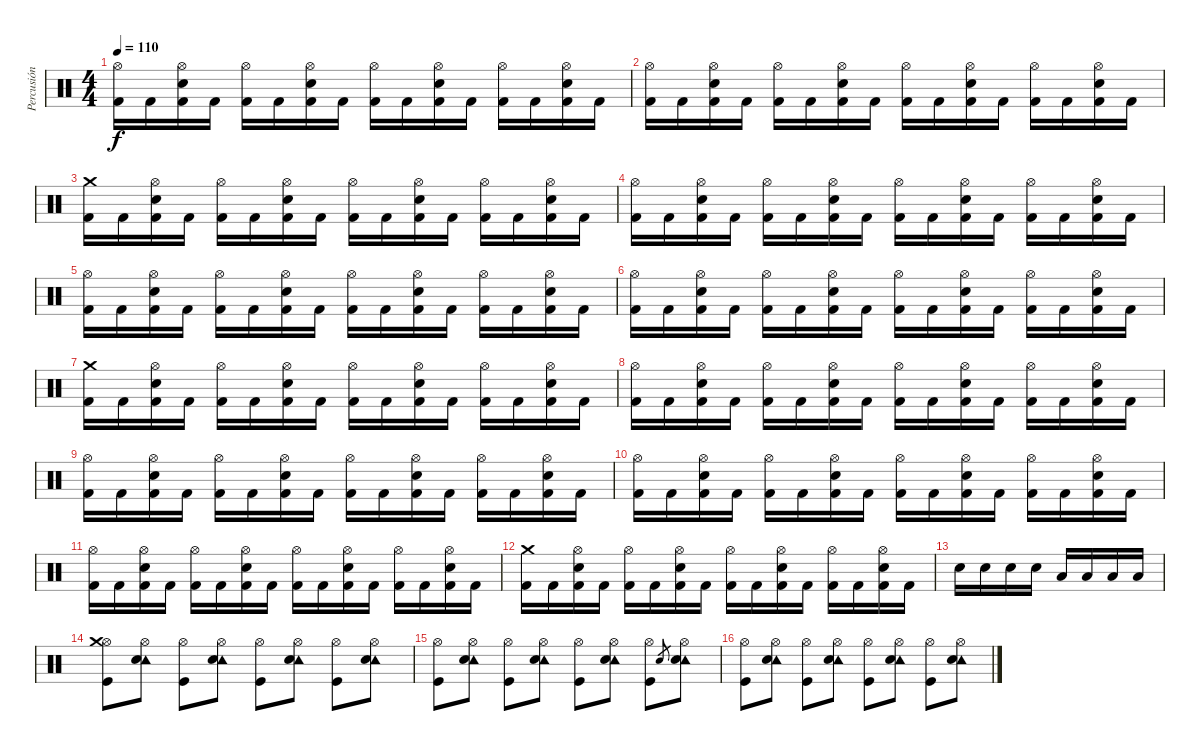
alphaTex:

\track ("Percusión" "Percusión") {instrument percussion}
\staff {score}
\articulation defaults
\ts (4 4)
\tempo 110
\clef neutral
\ks c
("Hi-Hat (open)" "Kick (hit) 2").16{dy f} "Kick (hit) 2".16 ("Hi-Hat (open)" "Electric Snare (hit)" "Kick (hit) 2").16 "Kick (hit) 2".16 ("Hi-Hat (open)" "Kick (hit) 2").16 "Kick (hit) 2".16 ("Hi-Hat (open)" "Electric Snare (hit)" "Kick (hit) 2").16 "Kick (hit) 2".16 ("Hi-Hat (open)" "Kick (hit) 2").16 "Kick (hit) 2".16 ("Hi-Hat (open)" "Electric Snare (hit)" "Kick (hit) 2").16 "Kick (hit) 2".16 ("Hi-Hat (open)" "Kick (hit) 2").16 "Kick (hit) 2".16 ("Hi-Hat (open)" "Electric Snare (hit)" "Kick (hit) 2").16 "Kick (hit) 2".16 |
("Hi-Hat (open)" "Kick (hit) 2").16 "Kick (hit) 2".16 ("Hi-Hat (open)" "Electric Snare (hit)" "Kick (hit) 2").16 "Kick (hit) 2".16 ("Hi-Hat (open)" "Kick (hit) 2").16 "Kick (hit) 2".16 ("Hi-Hat (open)" "Electric Snare (hit)" "Kick (hit) 2").16 "Kick (hit) 2".16 ("Hi-Hat (open)" "Kick (hit) 2").16 "Kick (hit) 2".16 ("Hi-Hat (open)" "Electric Snare (hit)" "Kick (hit) 2").16 "Kick (hit) 2".16 ("Hi-Hat (open)" "Kick (hit) 2").16 "Kick (hit) 2".16 ("Hi-Hat (open)" "Electric Snare (hit)" "Kick (hit) 2").16 "Kick (hit) 2".16 |
("Crash medium (hit)" "Kick (hit) 2").16 "Kick (hit) 2".16 ("Hi-Hat (open)" "Electric Snare (hit)" "Kick (hit) 2").16 "Kick (hit) 2".16 ("Hi-Hat (open)" "Kick (hit) 2").16 "Kick (hit) 2".16 ("Hi-Hat (open)" "Electric Snare (hit)" "Kick (hit) 2").16 "Kick (hit) 2".16 ("Hi-Hat (open)" "Kick (hit) 2").16 "Kick (hit) 2".16 ("Hi-Hat (open)" "Electric Snare (hit)" "Kick (hit) 2").16 "Kick (hit) 2".16 ("Hi-Hat (open)" "Kick (hit) 2").16 "Kick (hit) 2".16 ("Hi-Hat (open)" "Electric Snare (hit)" "Kick (hit) 2").16 "Kick (hit) 2".16 |
("Hi-Hat (open)" "Kick (hit) 2").16 "Kick (hit) 2".16 ("Hi-Hat (open)" "Electric Snare (hit)" "Kick (hit) 2").16 "Kick (hit) 2".16 ("Hi-Hat (open)" "Kick (hit) 2").16 "Kick (hit) 2".16 ("Hi-Hat (open)" "Electric Snare (hit)" "Kick (hit) 2").16 "Kick (hit) 2".16 ("Hi-Hat (open)" "Kick (hit) 2").16 "Kick (hit) 2".16 ("Hi-Hat (open)" "Electric Snare (hit)" "Kick (hit) 2").16 "Kick (hit) 2".16 ("Hi-Hat (open)" "Kick (hit) 2").16 "Kick (hit) 2".16 ("Hi-Hat (open)" "Electric Snare (hit)" "Kick (hit) 2").16 "Kick (hit) 2".16 |
("Hi-Hat (open)" "Kick (hit) 2").16 "Kick (hit) 2".16 ("Hi-Hat (open)" "Electric Snare (hit)" "Kick (hit) 2").16 "Kick (hit) 2".16 ("Hi-Hat (open)" "Kick (hit) 2").16 "Kick (hit) 2".16 ("Hi-Hat (open)" "Electric Snare (hit)" "Kick (hit) 2").16 "Kick (hit) 2".16 ("Hi-Hat (open)" "Kick (hit) 2").16 "Kick (hit) 2".16 ("Hi-Hat (open)" "Electric Snare (hit)" "Kick (hit) 2").16 "Kick (hit) 2".16 ("Hi-Hat (open)" "Kick (hit) 2").16 "Kick (hit) 2".16 ("Hi-Hat (open)" "Electric Snare (hit)" "Kick (hit) 2").16 "Kick (hit) 2".16 |
("Hi-Hat (open)" "Kick (hit) 2").16 "Kick (hit) 2".16 ("Hi-Hat (open)" "Electric Snare (hit)" "Kick (hit) 2").16 "Kick (hit) 2".16 ("Hi-Hat (open)" "Kick (hit) 2").16 "Kick (hit) 2".16 ("Hi-Hat (open)" "Electric Snare (hit)" "Kick (hit) 2").16 "Kick (hit) 2".16 ("Hi-Hat (open)" "Kick (hit) 2").16 "Kick (hit) 2".16 ("Hi-Hat (open)" "Electric Snare (hit)" "Kick (hit) 2").16 "Kick (hit) 2".16 ("Hi-Hat (open)" "Kick (hit) 2").16 "Kick (hit) 2".16 ("Hi-Hat (open)" "Electric Snare (hit)" "Kick (hit) 2").16 "Kick (hit) 2".16 |
("Crash medium (hit)" "Kick (hit) 2").16 "Kick (hit) 2".16 ("Hi-Hat (open)" "Electric Snare (hit)" "Kick (hit) 2").16 "Kick (hit) 2".16 ("Hi-Hat (open)" "Kick (hit) 2").16 "Kick (hit) 2".16 ("Hi-Hat (open)" "Electric Snare (hit)" "Kick (hit) 2").16 "Kick (hit) 2".16 ("Hi-Hat (open)" "Kick (hit) 2").16 "Kick (hit) 2".16 ("Hi-Hat (open)" "Electric Snare (hit)" "Kick (hit) 2").16 "Kick (hit) 2".16 ("Hi-Hat (open)" "Kick (hit) 2").16 "Kick (hit) 2".16 ("Hi-Hat (open)" "Electric Snare (hit)" "Kick (hit) 2").16 "Kick (hit) 2".16 |
("Hi-Hat (open)" "Kick (hit) 2").16 "Kick (hit) 2".16 ("Hi-Hat (open)" "Electric Snare (hit)" "Kick (hit) 2").16 "Kick (hit) 2".16 ("Hi-Hat (open)" "Kick (hit) 2").16 "Kick (hit) 2".16 ("Hi-Hat (open)" "Electric Snare (hit)" "Kick (hit) 2").16 "Kick (hit) 2".16 ("Hi-Hat (open)" "Kick (hit) 2").16 "Kick (hit) 2".16 ("Hi-Hat (open)" "Electric Snare (hit)" "Kick (hit) 2").16 "Kick (hit) 2".16 ("Hi-Hat (open)" "Kick (hit) 2").16 "Kick (hit) 2".16 ("Hi-Hat (open)" "Electric Snare (hit)" "Kick (hit) 2").16 "Kick (hit) 2".16 |
("Hi-Hat (open)" "Kick (hit) 2").16 "Kick (hit) 2".16 ("Hi-Hat (open)" "Electric Snare (hit)" "Kick (hit) 2").16 "Kick (hit) 2".16 ("Hi-Hat (open)" "Kick (hit) 2").16 "Kick (hit) 2".16 ("Hi-Hat (open)" "Electric Snare (hit)" "Kick (hit) 2").16 "Kick (hit) 2".16 ("Hi-Hat (open)" "Kick (hit) 2").16 "Kick (hit) 2".16 ("Hi-Hat (open)" "Electric Snare (hit)" "Kick (hit) 2").16 "Kick (hit) 2".16 ("Hi-Hat (open)" "Kick (hit) 2").16 "Kick (hit) 2".16 ("Hi-Hat (open)" "Electric Snare (hit)" "Kick (hit) 2").16 "Kick (hit) 2".16 |
("Hi-Hat (open)" "Kick (hit) 2").16 "Kick (hit) 2".16 ("Hi-Hat (open)" "Electric Snare (hit)" "Kick (hit) 2").16 "Kick (hit) 2".16 ("Hi-Hat (open)" "Kick (hit) 2").16 "Kick (hit) 2".16 ("Hi-Hat (open)" "Electric Snare (hit)" "Kick (hit) 2").16 "Kick (hit) 2".16 ("Hi-Hat (open)" "Kick (hit) 2").16 "Kick (hit) 2".16 ("Hi-Hat (open)" "Electric Snare (hit)" "Kick (hit) 2").16 "Kick (hit) 2".16 ("Hi-Hat (open)" "Kick (hit) 2").16 "Kick (hit) 2".16 ("Hi-Hat (open)" "Electric Snare (hit)" "Kick (hit) 2").16 "Kick (hit) 2".16 |
("Hi-Hat (open)" "Kick (hit) 2").16 "Kick (hit) 2".16 ("Hi-Hat (open)" "Electric Snare (hit)" "Kick (hit) 2").16 "Kick (hit) 2".16 ("Hi-Hat (open)" "Kick (hit) 2").16 "Kick (hit) 2".16 ("Hi-Hat (open)" "Electric Snare (hit)" "Kick (hit) 2").16 "Kick (hit) 2".16 ("Hi-Hat (open)" "Kick (hit) 2").16 "Kick (hit) 2".16 ("Hi-Hat (open)" "Electric Snare (hit)" "Kick (hit) 2").16 "Kick (hit) 2".16 ("Hi-Hat (open)" "Kick (hit) 2").16 "Kick (hit) 2".16 ("Hi-Hat (open)" "Electric Snare (hit)" "Kick (hit) 2").16 "Kick (hit) 2".16 |
("Crash medium (hit)" "Kick (hit) 2").16 "Kick (hit) 2".16 ("Hi-Hat (open)" "Electric Snare (hit)" "Kick (hit) 2").16 "Kick (hit) 2".16 ("Hi-Hat (open)" "Kick (hit) 2").16 "Kick (hit) 2".16 ("Hi-Hat (open)" "Electric Snare (hit)" "Kick (hit) 2").16 "Kick (hit) 2".16 ("Hi-Hat (open)" "Kick (hit) 2").16 "Kick (hit) 2".16 ("Hi-Hat (open)" "Electric Snare (hit)" "Kick (hit) 2").16 "Kick (hit) 2".16 ("Hi-Hat (open)" "Kick (hit) 2").16 "Kick (hit) 2".16 ("Hi-Hat (open)" "Electric Snare (hit)" "Kick (hit) 2").16 "Kick (hit) 2".16 |
"Electric Snare (hit)".16 "Electric Snare (hit)".16 "Electric Snare (hit)".16 "Electric Snare (hit)".16 "Low Tom (hit)".16 "Low Tom (hit)".16 "Low Tom (hit)".16 "Low Tom (hit)".16 |
("Hi-Hat (open)" "Crash medium (hit)" "Kick (hit)").8 ("Hi-Hat (open)" "Tambourine (hit)" "Electric Snare (hit)").8 ("Hi-Hat (open)" "Kick (hit)").8 ("Hi-Hat (open)" "Tambourine (hit)" "Electric Snare (hit)").8 ("Hi-Hat (open)" "Kick (hit)").8 ("Hi-Hat (open)" "Tambourine (hit)" "Electric Snare (hit)").8 ("Hi-Hat (open)" "Kick (hit)").8 ("Hi-Hat (open)" "Tambourine (hit)" "Electric Snare (hit)").8 |
("Hi-Hat (open)" "Kick (hit)").8 ("Hi-Hat (open)" "Tambourine (hit)" "Electric Snare (hit)").8 ("Hi-Hat (open)" "Kick (hit)").8 ("Hi-Hat (open)" "Tambourine (hit)" "Electric Snare (hit)").8 ("Hi-Hat (open)" "Kick (hit)").8 ("Hi-Hat (open)" "Tambourine (hit)" "Electric Snare (hit)").8 ("Hi-Hat (open)" "Kick (hit)").8 "Electric Snare (hit)".8{gr} ("Hi-Hat (open)" "Tambourine (hit)" "Electric Snare (hit)").8 |
("Hi-Hat (open)" "Kick (hit)").8 ("Hi-Hat (open)" "Tambourine (hit)" "Electric Snare (hit)").8 ("Hi-Hat (open)" "Kick (hit)").8 ("Hi-Hat (open)" "Tambourine (hit)" "Electric Snare (hit)").8 ("Hi-Hat (open)" "Kick (hit)").8 ("Hi-Hat (open)" "Tambourine (hit)" "Electric Snare (hit)").8 ("Hi-Hat (open)" "Kick (hit)").8 ("Hi-Hat (open)" "Tambourine (hit)" "Electric Snare (hit)").8
